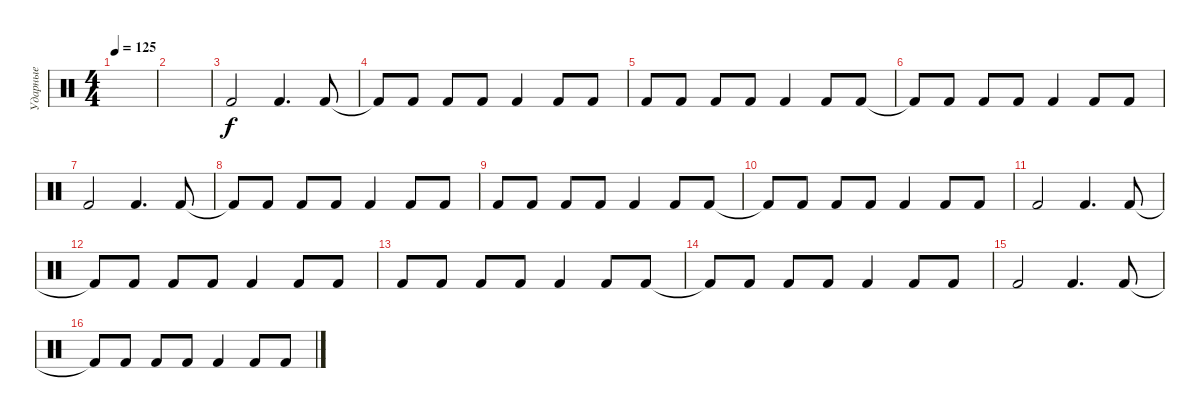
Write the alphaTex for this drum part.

\track ("Ударные" "Ударные") {instrument percussion}
\staff {score}
\articulation defaults
\ts (4 4)
\tempo 125
\clef neutral
\ks c
|
|
"Kick (hit) 2".2 "Kick (hit) 2".4{d} "Kick (hit) 2".8 |
"Kick (hit) 2"{t}.8 "Kick (hit) 2".8 "Kick (hit) 2".8 "Kick (hit) 2".8 "Kick (hit) 2".4 "Kick (hit) 2".8 "Kick (hit) 2".8 |
"Kick (hit) 2".8 "Kick (hit) 2".8 "Kick (hit) 2".8 "Kick (hit) 2".8 "Kick (hit) 2".4 "Kick (hit) 2".8 "Kick (hit) 2".8 |
"Kick (hit) 2"{t}.8 "Kick (hit) 2".8 "Kick (hit) 2".8 "Kick (hit) 2".8 "Kick (hit) 2".4 "Kick (hit) 2".8 "Kick (hit) 2".8 |
"Kick (hit) 2".2 "Kick (hit) 2".4{d} "Kick (hit) 2".8 |
"Kick (hit) 2"{t}.8 "Kick (hit) 2".8 "Kick (hit) 2".8 "Kick (hit) 2".8 "Kick (hit) 2".4 "Kick (hit) 2".8 "Kick (hit) 2".8 |
"Kick (hit) 2".8 "Kick (hit) 2".8 "Kick (hit) 2".8 "Kick (hit) 2".8 "Kick (hit) 2".4 "Kick (hit) 2".8 "Kick (hit) 2".8 |
"Kick (hit) 2"{t}.8 "Kick (hit) 2".8 "Kick (hit) 2".8 "Kick (hit) 2".8 "Kick (hit) 2".4 "Kick (hit) 2".8 "Kick (hit) 2".8 |
"Kick (hit) 2".2 "Kick (hit) 2".4{d} "Kick (hit) 2".8 |
"Kick (hit) 2"{t}.8 "Kick (hit) 2".8 "Kick (hit) 2".8 "Kick (hit) 2".8 "Kick (hit) 2".4 "Kick (hit) 2".8 "Kick (hit) 2".8 |
"Kick (hit) 2".8 "Kick (hit) 2".8 "Kick (hit) 2".8 "Kick (hit) 2".8 "Kick (hit) 2".4 "Kick (hit) 2".8 "Kick (hit) 2".8 |
"Kick (hit) 2"{t}.8 "Kick (hit) 2".8 "Kick (hit) 2".8 "Kick (hit) 2".8 "Kick (hit) 2".4 "Kick (hit) 2".8 "Kick (hit) 2".8 |
"Kick (hit) 2".2 "Kick (hit) 2".4{d} "Kick (hit) 2".8 |
"Kick (hit) 2"{t}.8 "Kick (hit) 2".8 "Kick (hit) 2".8 "Kick (hit) 2".8 "Kick (hit) 2".4 "Kick (hit) 2".8 "Kick (hit) 2".8
